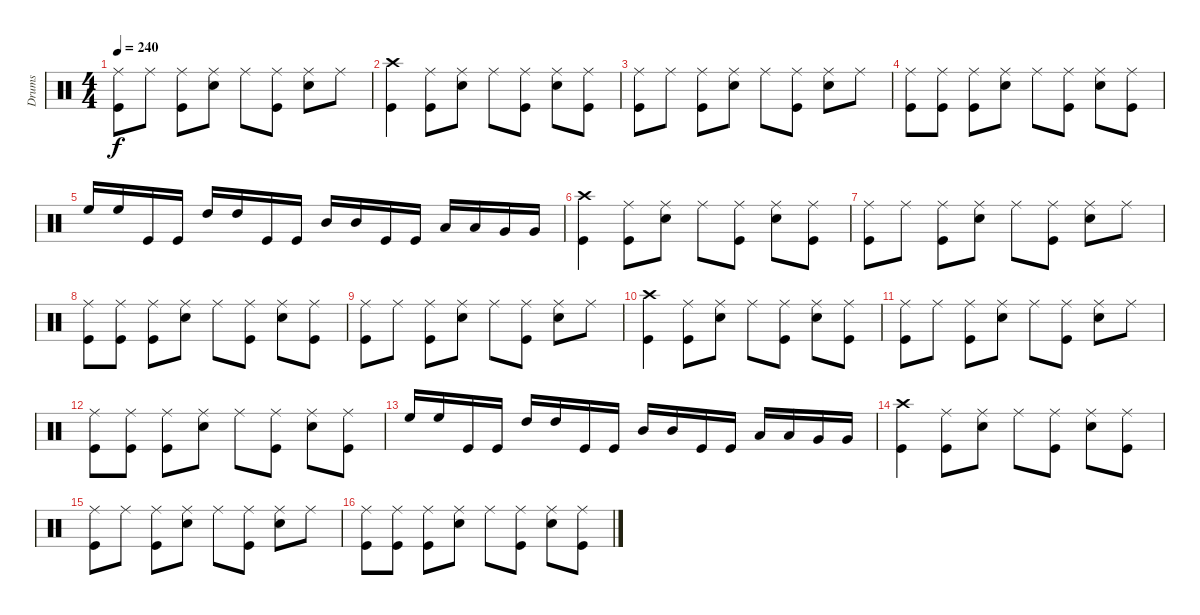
\track ("Drums" "Drums") {instrument percussion}
\staff {score}
\articulation defaults
\ts (4 4)
\tempo 240
\clef neutral
\ks c
("Ride (middle)" "Kick (hit)").8{dy f} "Ride (middle)".8 ("Ride (middle)" "Kick (hit)").8 ("Ride (middle)" "Snare (hit) 2").8 "Ride (middle)".8 ("Ride (middle)" "Kick (hit)").8 ("Ride (middle)" "Snare (hit) 2").8 "Ride (middle)".8 |
("Crash high (hit)" "Kick (hit)").4 ("Ride (middle)" "Kick (hit)").8 ("Ride (middle)" "Snare (hit) 2").8 "Ride (middle)".8 ("Ride (middle)" "Kick (hit)").8 ("Ride (middle)" "Snare (hit) 2").8 ("Ride (middle)" "Kick (hit)").8 |
("Ride (middle)" "Kick (hit)").8 "Ride (middle)".8 ("Ride (middle)" "Kick (hit)").8 ("Ride (middle)" "Snare (hit) 2").8 "Ride (middle)".8 ("Ride (middle)" "Kick (hit)").8 ("Ride (middle)" "Snare (hit) 2").8 "Ride (middle)".8 |
("Ride (middle)" "Kick (hit)").8 ("Ride (middle)" "Kick (hit)").8 ("Ride (middle)" "Kick (hit)").8 ("Ride (middle)" "Snare (hit) 2").8 "Ride (middle)".8 ("Ride (middle)" "Kick (hit)").8 ("Ride (middle)" "Snare (hit) 2").8 ("Ride (middle)" "Kick (hit)").8 |
"High Floor Tom (hit)".16 "High Floor Tom (hit)".16 "Kick (hit)".16 "Kick (hit)".16 "High Tom (hit)".16 "High Tom (hit)".16 "Kick (hit)".16 "Kick (hit)".16 "Mid Tom (hit)".16 "Mid Tom (hit)".16 "Kick (hit)".16 "Kick (hit)".16 "Low Tom (hit)".16 "Low Tom (hit)".16 "Very Low Tom (hit)".16 "Very Low Tom (hit)".16 |
("Crash high (hit)" "Kick (hit)").4 ("Ride (middle)" "Kick (hit)").8 ("Ride (middle)" "Snare (hit) 2").8 "Ride (middle)".8 ("Ride (middle)" "Kick (hit)").8 ("Ride (middle)" "Snare (hit) 2").8 ("Ride (middle)" "Kick (hit)").8 |
("Ride (middle)" "Kick (hit)").8 "Ride (middle)".8 ("Ride (middle)" "Kick (hit)").8 ("Ride (middle)" "Snare (hit) 2").8 "Ride (middle)".8 ("Ride (middle)" "Kick (hit)").8 ("Ride (middle)" "Snare (hit) 2").8 "Ride (middle)".8 |
("Ride (middle)" "Kick (hit)").8 ("Ride (middle)" "Kick (hit)").8 ("Ride (middle)" "Kick (hit)").8 ("Ride (middle)" "Snare (hit) 2").8 "Ride (middle)".8 ("Ride (middle)" "Kick (hit)").8 ("Ride (middle)" "Snare (hit) 2").8 ("Ride (middle)" "Kick (hit)").8 |
("Ride (middle)" "Kick (hit)").8 "Ride (middle)".8 ("Ride (middle)" "Kick (hit)").8 ("Ride (middle)" "Snare (hit) 2").8 "Ride (middle)".8 ("Ride (middle)" "Kick (hit)").8 ("Ride (middle)" "Snare (hit) 2").8 "Ride (middle)".8 |
("Crash high (hit)" "Kick (hit)").4 ("Ride (middle)" "Kick (hit)").8 ("Ride (middle)" "Snare (hit) 2").8 "Ride (middle)".8 ("Ride (middle)" "Kick (hit)").8 ("Ride (middle)" "Snare (hit) 2").8 ("Ride (middle)" "Kick (hit)").8 |
("Ride (middle)" "Kick (hit)").8 "Ride (middle)".8 ("Ride (middle)" "Kick (hit)").8 ("Ride (middle)" "Snare (hit) 2").8 "Ride (middle)".8 ("Ride (middle)" "Kick (hit)").8 ("Ride (middle)" "Snare (hit) 2").8 "Ride (middle)".8 |
("Ride (middle)" "Kick (hit)").8 ("Ride (middle)" "Kick (hit)").8 ("Ride (middle)" "Kick (hit)").8 ("Ride (middle)" "Snare (hit) 2").8 "Ride (middle)".8 ("Ride (middle)" "Kick (hit)").8 ("Ride (middle)" "Snare (hit) 2").8 ("Ride (middle)" "Kick (hit)").8 |
"High Floor Tom (hit)".16 "High Floor Tom (hit)".16 "Kick (hit)".16 "Kick (hit)".16 "High Tom (hit)".16 "High Tom (hit)".16 "Kick (hit)".16 "Kick (hit)".16 "Mid Tom (hit)".16 "Mid Tom (hit)".16 "Kick (hit)".16 "Kick (hit)".16 "Low Tom (hit)".16 "Low Tom (hit)".16 "Very Low Tom (hit)".16 "Very Low Tom (hit)".16 |
("Crash high (hit)" "Kick (hit)").4 ("Ride (middle)" "Kick (hit)").8 ("Ride (middle)" "Snare (hit) 2").8 "Ride (middle)".8 ("Ride (middle)" "Kick (hit)").8 ("Ride (middle)" "Snare (hit) 2").8 ("Ride (middle)" "Kick (hit)").8 |
("Ride (middle)" "Kick (hit)").8 "Ride (middle)".8 ("Ride (middle)" "Kick (hit)").8 ("Ride (middle)" "Snare (hit) 2").8 "Ride (middle)".8 ("Ride (middle)" "Kick (hit)").8 ("Ride (middle)" "Snare (hit) 2").8 "Ride (middle)".8 |
("Ride (middle)" "Kick (hit)").8 ("Ride (middle)" "Kick (hit)").8 ("Ride (middle)" "Kick (hit)").8 ("Ride (middle)" "Snare (hit) 2").8 "Ride (middle)".8 ("Ride (middle)" "Kick (hit)").8 ("Ride (middle)" "Snare (hit) 2").8 ("Ride (middle)" "Kick (hit)").8
